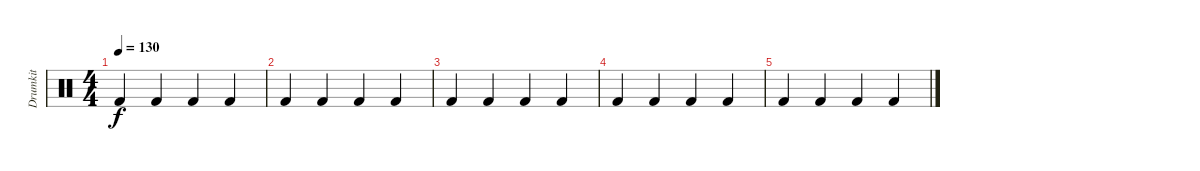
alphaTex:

\track ("Drumkit" "Drumkit") {instrument percussion}
\staff {score}
\articulation defaults
\ts (4 4)
\tempo 130
\clef neutral
\ks c "Kick (hit) 2".4{dy f} "Kick (hit) 2".4 "Kick (hit) 2".4 "Kick (hit) 2".4
|
"Kick (hit) 2".4 "Kick (hit) 2".4 "Kick (hit) 2".4 "Kick (hit) 2".4 |
"Kick (hit) 2".4 "Kick (hit) 2".4 "Kick (hit) 2".4 "Kick (hit) 2".4 |
"Kick (hit) 2".4 "Kick (hit) 2".4 "Kick (hit) 2".4 "Kick (hit) 2".4 |
"Kick (hit) 2".4 "Kick (hit) 2".4 "Kick (hit) 2".4 "Kick (hit) 2".4
